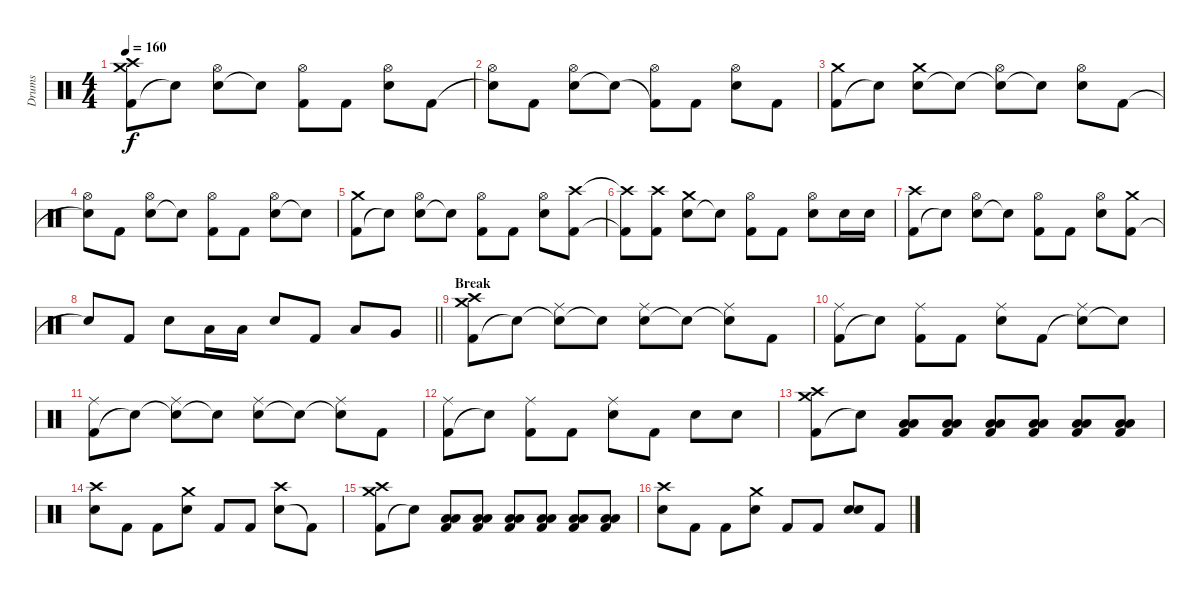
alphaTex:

\track ("Drums" "Drums") {instrument percussion}
\staff {score}
\articulation defaults
\ts (4 4)
\tempo 160
\clef neutral
\ks c
("Kick (hit) 2" "Crash medium (hit)" "Crash high (hit)").8{dy f} "Snare (hit)"{t}.8 ("Electric Snare (hit)" "Hi-Hat (open)").8 "Snare (hit)"{t}.8 ("Kick (hit) 2" "Hi-Hat (open)").8 "Kick (hit) 2".8 ("Electric Snare (hit)" "Hi-Hat (open)").8 "Kick (hit) 2".8 |
("Snare (hit)"{t} "Hi-Hat (open)").8 "Kick (hit) 2".8 ("Electric Snare (hit)" "Hi-Hat (open)").8 "Snare (hit)"{t}.8 ("Kick (hit) 2"{t} "Hi-Hat (open)").8 "Kick (hit) 2".8 ("Electric Snare (hit)" "Hi-Hat (open)").8 "Kick (hit) 2".8 |
("Kick (hit) 2" "Crash medium (hit)").8 "Snare (hit)"{t}.8 ("Electric Snare (hit)" "Crash medium (hit)").8 "Snare (hit)"{t}.8 ("Snare (hit)"{t} "Hi-Hat (open)").8 "Snare (hit)"{t}.8 ("Electric Snare (hit)" "Hi-Hat (open)").8 "Kick (hit) 2".8 |
("Snare (hit)"{t} "Hi-Hat (open)").8 "Kick (hit) 2".8 ("Electric Snare (hit)" "Hi-Hat (open)").8 "Snare (hit)"{t}.8 ("Kick (hit) 2" "Hi-Hat (open)").8 "Kick (hit) 2".8 ("Electric Snare (hit)" "Hi-Hat (open)").8 "Snare (hit)"{t}.8 |
("Kick (hit) 2" "Crash medium (hit)").8 "Snare (hit)"{t}.8 ("Electric Snare (hit)" "Hi-Hat (open)").8 "Snare (hit)"{t}.8 ("Kick (hit) 2" "Hi-Hat (open)").8 "Kick (hit) 2".8 ("Electric Snare (hit)" "Hi-Hat (open)").8 ("Kick (hit) 2" "Crash high (hit)").8 |
("Kick (hit) 2"{t} "Crash high (hit)"{t}).8 ("Kick (hit) 2" "Crash high (hit)").8 ("Electric Snare (hit)" "Crash medium (hit)").8 "Snare (hit)"{t}.8 ("Kick (hit) 2" "Hi-Hat (open)").8 "Kick (hit) 2".8 ("Electric Snare (hit)" "Hi-Hat (open)").8 "Electric Snare (hit)".16 "Electric Snare (hit)".16 |
("Kick (hit) 2" "Crash high (hit)").8 "Snare (hit)"{t}.8 ("Electric Snare (hit)" "Hi-Hat (open)").8 "Snare (hit)"{t}.8 ("Kick (hit) 2" "Hi-Hat (open)").8 "Kick (hit) 2".8 ("Electric Snare (hit)" "Hi-Hat (open)").8 ("Kick (hit) 2" "Crash medium (hit)").8 |
\barLineRight lightlight "Snare (hit)"{t}.8 "Kick (hit) 2".8 "Electric Snare (hit)".8 "Low Tom (hit)".16 "Low Tom (hit)".16 "Electric Snare (hit)".8 "Kick (hit) 2".8 "Low Tom (hit)".8 "Very Low Tom (hit)".8
|
\section ("" "Break")
("Kick (hit) 2" "Crash medium (hit)" "Crash high (hit)").8 "Snare (hit)"{t}.8 ("Snare (hit)"{t} "Ride (middle)").8 "Snare (hit)"{t}.8 ("Electric Snare (hit)" "Ride (middle)").8 "Snare (hit)"{t}.8 ("Snare (hit)"{t} "Ride (middle)").8 "Kick (hit) 2".8 |
("Kick (hit) 2" "Ride (middle)").8 "Snare (hit)"{t}.8 ("Kick (hit) 2" "Ride (middle)").8 "Kick (hit) 2".8 ("Electric Snare (hit)" "Ride (middle)").8 "Kick (hit) 2".8 ("Snare (hit)"{t} "Ride (middle)").8 "Snare (hit)"{t}.8 |
("Kick (hit) 2" "Ride (middle)").8 "Snare (hit)"{t}.8 ("Snare (hit)"{t} "Ride (middle)").8 "Snare (hit)"{t}.8 ("Electric Snare (hit)" "Ride (middle)").8 "Snare (hit)"{t}.8 ("Snare (hit)"{t} "Ride (middle)").8 "Kick (hit) 2".8 |
("Kick (hit) 2" "Ride (middle)").8 "Snare (hit)"{t}.8 ("Kick (hit) 2" "Ride (middle)").8 "Kick (hit) 2".8 ("Electric Snare (hit)" "Ride (middle)").8 "Kick (hit) 2".8 "Electric Snare (hit)".8 "Electric Snare (hit)".8 |
("Kick (hit) 2" "Crash medium (hit)" "Crash high (hit)").8 "Snare (hit)"{t}.8 ("Kick (hit) 2" "Low Tom (hit)" "Low Floor Tom (hit)").8 ("Kick (hit) 2" "Low Tom (hit)" "Low Floor Tom (hit)").8 ("Kick (hit) 2" "Low Tom (hit)" "Low Floor Tom (hit)").8 ("Kick (hit) 2" "Low Tom (hit)" "Low Floor Tom (hit)").8 ("Kick (hit) 2" "Low Tom (hit)" "Low Floor Tom (hit)").8 ("Kick (hit) 2" "Low Tom (hit)" "Low Floor Tom (hit)").8 |
("Electric Snare (hit)" "Crash high (hit)").8 "Kick (hit) 2".8 "Kick (hit) 2".8 ("Electric Snare (hit)" "Crash medium (hit)").8 "Kick (hit) 2".8 "Kick (hit) 2".8 ("Electric Snare (hit)" "Crash high (hit)").8 "Kick (hit) 2"{t}.8 |
("Kick (hit) 2" "Crash medium (hit)" "Crash high (hit)").8 "Snare (hit)"{t}.8 ("Kick (hit) 2" "Low Tom (hit)" "Low Floor Tom (hit)").8 ("Kick (hit) 2" "Low Tom (hit)" "Low Floor Tom (hit)").8 ("Kick (hit) 2" "Low Tom (hit)" "Low Floor Tom (hit)").8 ("Kick (hit) 2" "Low Tom (hit)" "Low Floor Tom (hit)").8 ("Kick (hit) 2" "Low Tom (hit)" "Low Floor Tom (hit)").8 ("Kick (hit) 2" "Low Tom (hit)" "Low Floor Tom (hit)").8 |
("Electric Snare (hit)" "Crash high (hit)").8 "Kick (hit) 2".8 "Kick (hit) 2".8 ("Electric Snare (hit)" "Crash medium (hit)").8 "Kick (hit) 2".8 "Kick (hit) 2".8 ("Electric Snare (hit)" "Electric Snare (hit)").8 "Kick (hit) 2".8
